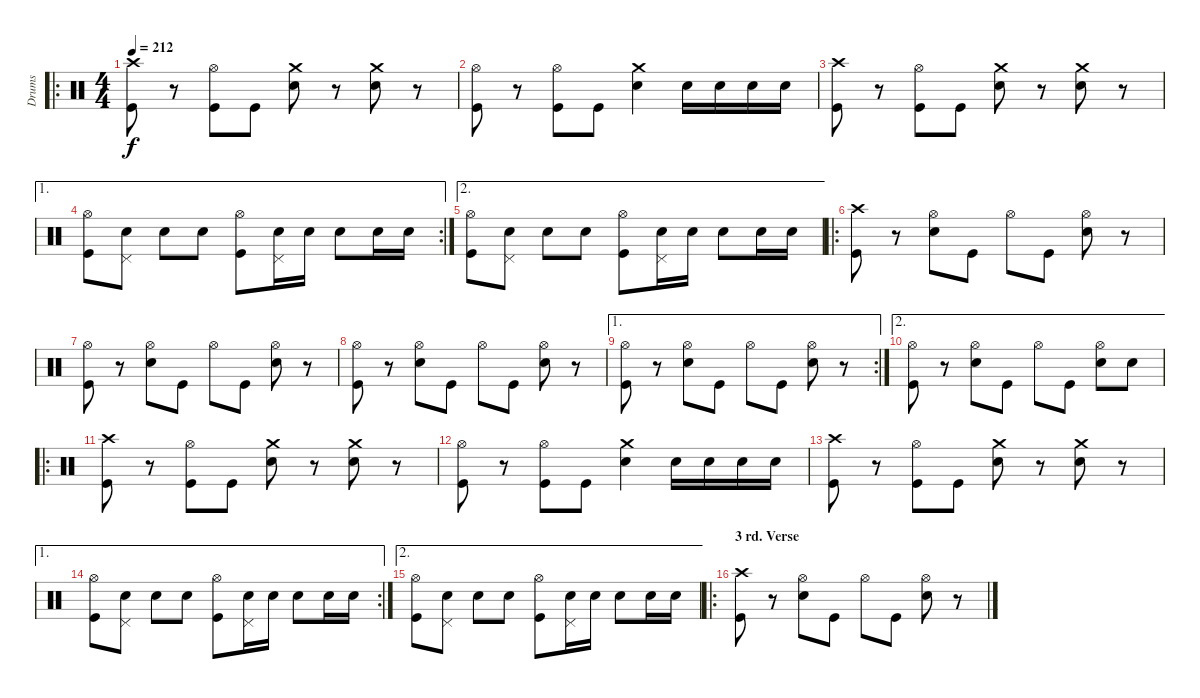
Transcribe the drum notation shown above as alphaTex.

\track ("Drums" "Drums") {instrument percussion}
\staff {score}
\articulation defaults
\ro
\ts (4 4)
\tempo 212
\clef neutral
\ks c
("Crash high (hit)" "Kick (hit)").8{dy f} r.8 ("Hi-Hat (open)" "Kick (hit)").8 "Kick (hit)".8 ("Crash medium (hit)" "Snare (hit) 2").8 r.8 ("Crash medium (hit)" "Snare (hit) 2").8 r.8 |
("Hi-Hat (open)" "Kick (hit)").8 r.8 ("Hi-Hat (open)" "Kick (hit)").8 "Kick (hit)".8 ("Crash medium (hit)" "Snare (hit) 2").4 "Snare (hit) 2".16 "Snare (hit) 2".16 "Snare (hit) 2".16 "Snare (hit) 2".16 |
("Crash high (hit)" "Kick (hit)").8 r.8 ("Hi-Hat (open)" "Kick (hit)").8 "Kick (hit)".8 ("Crash medium (hit)" "Snare (hit) 2").8 r.8 ("Crash medium (hit)" "Snare (hit) 2").8 r.8 |
\ae 1
\rc 2
("Hi-Hat (open)" "Kick (hit)").8 ("Pedal Hi-Hat (hit)" "Snare (hit) 2").8 "Snare (hit) 2".8 "Snare (hit) 2".8 ("Hi-Hat (open)" "Kick (hit)").8 ("Pedal Hi-Hat (hit)" "Snare (hit) 2").16 "Snare (hit) 2".16 "Snare (hit) 2".8 "Snare (hit) 2".16 "Snare (hit) 2".16 |
\ae 2
("Hi-Hat (open)" "Kick (hit)").8 ("Pedal Hi-Hat (hit)" "Snare (hit) 2").8 "Snare (hit) 2".8 "Snare (hit) 2".8 ("Hi-Hat (open)" "Kick (hit)").8 ("Pedal Hi-Hat (hit)" "Snare (hit) 2").16 "Snare (hit) 2".16 "Snare (hit) 2".8 "Snare (hit) 2".16 "Snare (hit) 2".16 |
\ro
("Crash high (hit)" "Kick (hit)").8 r.8 ("Hi-Hat (open)" "Snare (hit) 2").8 "Kick (hit)".8 "Hi-Hat (open)".8 "Kick (hit)".8 ("Hi-Hat (open)" "Snare (hit) 2").8 r.8 |
("Hi-Hat (open)" "Kick (hit)").8 r.8 ("Hi-Hat (open)" "Snare (hit) 2").8 "Kick (hit)".8 "Hi-Hat (open)".8 "Kick (hit)".8 ("Hi-Hat (open)" "Snare (hit) 2").8 r.8 |
("Hi-Hat (open)" "Kick (hit)").8 r.8 ("Hi-Hat (open)" "Snare (hit) 2").8 "Kick (hit)".8 "Hi-Hat (open)".8 "Kick (hit)".8 ("Hi-Hat (open)" "Snare (hit) 2").8 r.8 |
\ae 1
\rc 2
("Hi-Hat (open)" "Kick (hit)").8 r.8 ("Hi-Hat (open)" "Snare (hit) 2").8 "Kick (hit)".8 "Hi-Hat (open)".8 "Kick (hit)".8 ("Hi-Hat (open)" "Snare (hit) 2").8 r.8 |
\ae 2
("Hi-Hat (open)" "Kick (hit)").8 r.8 ("Hi-Hat (open)" "Snare (hit) 2").8 "Kick (hit)".8 "Hi-Hat (open)".8 "Kick (hit)".8 ("Hi-Hat (open)" "Snare (hit) 2").8 "Snare (hit) 2".8 |
\ro
("Crash high (hit)" "Kick (hit)").8 r.8 ("Hi-Hat (open)" "Kick (hit)").8 "Kick (hit)".8 ("Crash medium (hit)" "Snare (hit) 2").8 r.8 ("Crash medium (hit)" "Snare (hit) 2").8 r.8 |
("Hi-Hat (open)" "Kick (hit)").8 r.8 ("Hi-Hat (open)" "Kick (hit)").8 "Kick (hit)".8 ("Crash medium (hit)" "Snare (hit) 2").4 "Snare (hit) 2".16 "Snare (hit) 2".16 "Snare (hit) 2".16 "Snare (hit) 2".16 |
("Crash high (hit)" "Kick (hit)").8 r.8 ("Hi-Hat (open)" "Kick (hit)").8 "Kick (hit)".8 ("Crash medium (hit)" "Snare (hit) 2").8 r.8 ("Crash medium (hit)" "Snare (hit) 2").8 r.8 |
\ae 1
\rc 2
("Hi-Hat (open)" "Kick (hit)").8 ("Pedal Hi-Hat (hit)" "Snare (hit) 2").8 "Snare (hit) 2".8 "Snare (hit) 2".8 ("Hi-Hat (open)" "Kick (hit)").8 ("Pedal Hi-Hat (hit)" "Snare (hit) 2").16 "Snare (hit) 2".16 "Snare (hit) 2".8 "Snare (hit) 2".16 "Snare (hit) 2".16 |
\ae 2
("Hi-Hat (open)" "Kick (hit)").8 ("Pedal Hi-Hat (hit)" "Snare (hit) 2").8 "Snare (hit) 2".8 "Snare (hit) 2".8 ("Hi-Hat (open)" "Kick (hit)").8 ("Pedal Hi-Hat (hit)" "Snare (hit) 2").16 "Snare (hit) 2".16 "Snare (hit) 2".8 "Snare (hit) 2".16 "Snare (hit) 2".16 |
\ro
\section ("" "3 rd. Verse")
("Crash high (hit)" "Kick (hit)").8 r.8 ("Hi-Hat (open)" "Snare (hit) 2").8 "Kick (hit)".8 "Hi-Hat (open)".8 "Kick (hit)".8 ("Hi-Hat (open)" "Snare (hit) 2").8 r.8
